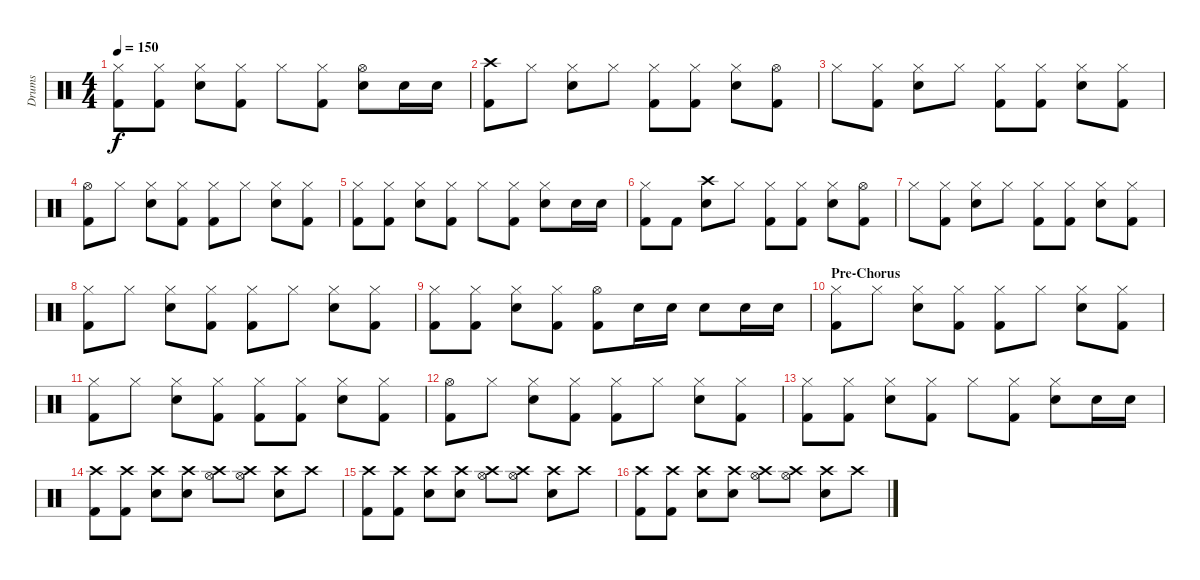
\track ("Drums" "Drums") {instrument percussion}
\staff {score}
\articulation defaults
\ts (4 4)
\tempo 150
\clef neutral
\ks c
("Hi-Hat (closed)" "Kick (hit) 2").8{dy f} ("Hi-Hat (closed)" "Kick (hit) 2").8 ("Hi-Hat (closed)" "Electric Snare (hit)").8 ("Hi-Hat (closed)" "Kick (hit) 2").8 "Hi-Hat (closed)".8 ("Hi-Hat (closed)" "Kick (hit) 2").8 ("Hi-Hat (open)" "Electric Snare (hit)").8 "Electric Snare (hit)".16 "Electric Snare (hit)".16 |
("Crash high (hit)" "Kick (hit) 2").8 "Hi-Hat (closed)".8 ("Hi-Hat (closed)" "Electric Snare (hit)").8 "Hi-Hat (closed)".8 ("Hi-Hat (closed)" "Kick (hit) 2").8 ("Hi-Hat (closed)" "Kick (hit) 2").8 ("Hi-Hat (closed)" "Electric Snare (hit)").8 ("Hi-Hat (open)" "Kick (hit) 2").8 |
"Hi-Hat (closed)".8 ("Hi-Hat (closed)" "Kick (hit) 2").8 ("Hi-Hat (closed)" "Electric Snare (hit)").8 "Hi-Hat (closed)".8 ("Hi-Hat (closed)" "Kick (hit) 2").8 ("Hi-Hat (closed)" "Kick (hit) 2").8 ("Hi-Hat (closed)" "Electric Snare (hit)").8 ("Hi-Hat (closed)" "Kick (hit) 2").8 |
("Hi-Hat (open)" "Kick (hit) 2").8 "Hi-Hat (closed)".8 ("Hi-Hat (closed)" "Electric Snare (hit)").8 ("Hi-Hat (closed)" "Kick (hit) 2").8 ("Hi-Hat (closed)" "Kick (hit) 2").8 "Hi-Hat (closed)".8 ("Hi-Hat (closed)" "Electric Snare (hit)").8 ("Hi-Hat (closed)" "Kick (hit) 2").8 |
("Hi-Hat (closed)" "Kick (hit) 2").8 ("Hi-Hat (closed)" "Kick (hit) 2").8 ("Hi-Hat (closed)" "Electric Snare (hit)").8 ("Hi-Hat (closed)" "Kick (hit) 2").8 "Hi-Hat (closed)".8 ("Hi-Hat (closed)" "Kick (hit) 2").8 ("Hi-Hat (closed)" "Electric Snare (hit)").8 "Electric Snare (hit)".16 "Electric Snare (hit)".16 |
("Hi-Hat (closed)" "Kick (hit) 2").8 "Kick (hit) 2".8 ("Crash high (hit)" "Electric Snare (hit)").8 "Hi-Hat (closed)".8 ("Hi-Hat (closed)" "Kick (hit) 2").8 ("Hi-Hat (closed)" "Kick (hit) 2").8 ("Hi-Hat (closed)" "Electric Snare (hit)").8 ("Hi-Hat (open)" "Kick (hit) 2").8 |
"Hi-Hat (closed)".8 ("Hi-Hat (closed)" "Kick (hit) 2").8 ("Hi-Hat (closed)" "Electric Snare (hit)").8 "Hi-Hat (closed)".8 ("Hi-Hat (closed)" "Kick (hit) 2").8 ("Hi-Hat (closed)" "Kick (hit) 2").8 ("Hi-Hat (closed)" "Electric Snare (hit)").8 ("Hi-Hat (closed)" "Kick (hit) 2").8 |
("Hi-Hat (closed)" "Kick (hit) 2").8 "Hi-Hat (closed)".8 ("Hi-Hat (closed)" "Electric Snare (hit)").8 ("Hi-Hat (closed)" "Kick (hit) 2").8 ("Hi-Hat (closed)" "Kick (hit) 2").8 "Hi-Hat (closed)".8 ("Hi-Hat (closed)" "Electric Snare (hit)").8 ("Hi-Hat (closed)" "Kick (hit) 2").8 |
("Hi-Hat (closed)" "Kick (hit) 2").8 ("Hi-Hat (closed)" "Kick (hit) 2").8 ("Hi-Hat (closed)" "Electric Snare (hit)").8 ("Hi-Hat (closed)" "Kick (hit) 2").8 ("Hi-Hat (open)" "Kick (hit) 2").8 "Electric Snare (hit)".16 "Electric Snare (hit)".16 "Electric Snare (hit)".8 "Electric Snare (hit)".16 "Electric Snare (hit)".16 |
\section ("" "Pre-Chorus")
("Hi-Hat (closed)" "Kick (hit) 2").8 "Hi-Hat (closed)".8 ("Hi-Hat (closed)" "Electric Snare (hit)").8 ("Hi-Hat (closed)" "Kick (hit) 2").8 ("Hi-Hat (closed)" "Kick (hit) 2").8 "Hi-Hat (closed)".8 ("Hi-Hat (closed)" "Electric Snare (hit)").8 ("Hi-Hat (closed)" "Kick (hit) 2").8 |
("Hi-Hat (closed)" "Kick (hit) 2").8 "Hi-Hat (closed)".8 ("Hi-Hat (closed)" "Electric Snare (hit)").8 ("Hi-Hat (closed)" "Kick (hit) 2").8 ("Hi-Hat (closed)" "Kick (hit) 2").8 ("Hi-Hat (closed)" "Kick (hit) 2").8 ("Hi-Hat (closed)" "Electric Snare (hit)").8 ("Hi-Hat (closed)" "Kick (hit) 2").8 |
("Hi-Hat (open)" "Kick (hit) 2").8 "Hi-Hat (closed)".8 ("Hi-Hat (closed)" "Electric Snare (hit)").8 ("Hi-Hat (closed)" "Kick (hit) 2").8 ("Hi-Hat (closed)" "Kick (hit) 2").8 "Hi-Hat (closed)".8 ("Hi-Hat (closed)" "Electric Snare (hit)").8 ("Hi-Hat (closed)" "Kick (hit) 2").8 |
("Hi-Hat (closed)" "Kick (hit) 2").8 ("Hi-Hat (closed)" "Kick (hit) 2").8 ("Hi-Hat (closed)" "Electric Snare (hit)").8 ("Hi-Hat (closed)" "Kick (hit) 2").8 "Hi-Hat (closed)".8 ("Hi-Hat (closed)" "Kick (hit) 2").8 ("Hi-Hat (closed)" "Electric Snare (hit)").8 "Electric Snare (hit)".16 "Electric Snare (hit)".16 |
("Crash high (hit)" "Kick (hit) 2").8 ("Crash high (hit)" "Kick (hit) 2").8 ("Crash high (hit)" "Electric Snare (hit)").8 ("Crash high (hit)" "Electric Snare (hit)").8 ("Crash high (hit)" "Hi-Hat (open)").8 ("Crash high (hit)" "Hi-Hat (open)").8 ("Crash high (hit)" "Electric Snare (hit)").8 "Crash high (hit)".8 |
("Crash high (hit)" "Kick (hit) 2").8 ("Crash high (hit)" "Kick (hit) 2").8 ("Crash high (hit)" "Electric Snare (hit)").8 ("Crash high (hit)" "Electric Snare (hit)").8 ("Crash high (hit)" "Hi-Hat (open)").8 ("Crash high (hit)" "Hi-Hat (open)").8 ("Crash high (hit)" "Electric Snare (hit)").8 "Crash high (hit)".8 |
("Crash high (hit)" "Kick (hit) 2").8 ("Crash high (hit)" "Kick (hit) 2").8 ("Crash high (hit)" "Electric Snare (hit)").8 ("Crash high (hit)" "Electric Snare (hit)").8 ("Crash high (hit)" "Hi-Hat (open)").8 ("Crash high (hit)" "Hi-Hat (open)").8 ("Crash high (hit)" "Electric Snare (hit)").8 "Crash high (hit)".8
